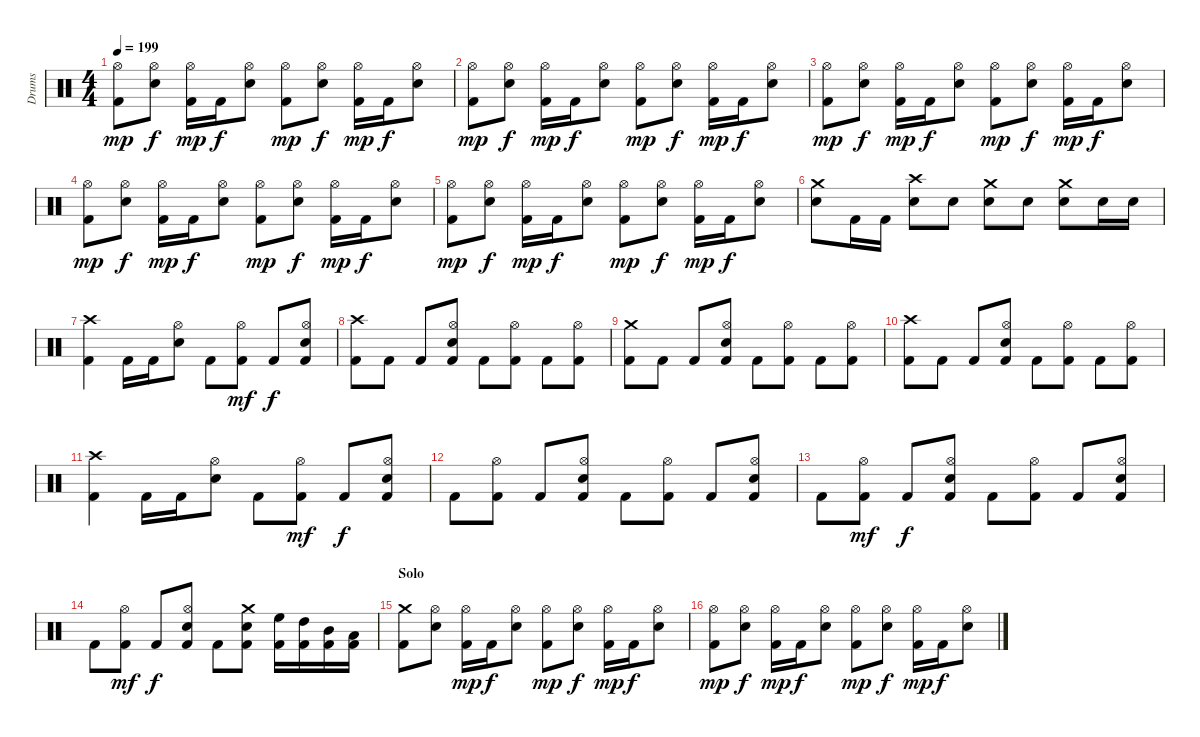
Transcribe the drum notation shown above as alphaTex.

\track ("Drums" "Drums") {instrument percussion}
\staff {score}
\articulation defaults
\ts (4 4)
\tempo 199
\clef neutral
\ks c
("Kick (hit) 2" "Hi-Hat (open)").8{dy mp} ("Snare (hit) 2" "Hi-Hat (open)").8{dy f} ("Kick (hit) 2" "Hi-Hat (open)").16{dy mp} "Kick (hit) 2".16{dy f} ("Snare (hit) 2" "Hi-Hat (open)").8 ("Kick (hit) 2" "Hi-Hat (open)").8{dy mp} ("Snare (hit) 2" "Hi-Hat (open)").8{dy f} ("Kick (hit) 2" "Hi-Hat (open)").16{dy mp} "Kick (hit) 2".16{dy f} ("Snare (hit) 2" "Hi-Hat (open)").8 |
("Kick (hit) 2" "Hi-Hat (open)").8{dy mp} ("Snare (hit) 2" "Hi-Hat (open)").8{dy f} ("Kick (hit) 2" "Hi-Hat (open)").16{dy mp} "Kick (hit) 2".16{dy f} ("Snare (hit) 2" "Hi-Hat (open)").8 ("Kick (hit) 2" "Hi-Hat (open)").8{dy mp} ("Snare (hit) 2" "Hi-Hat (open)").8{dy f} ("Kick (hit) 2" "Hi-Hat (open)").16{dy mp} "Kick (hit) 2".16{dy f} ("Snare (hit) 2" "Hi-Hat (open)").8 |
("Kick (hit) 2" "Hi-Hat (open)").8{dy mp} ("Snare (hit) 2" "Hi-Hat (open)").8{dy f} ("Kick (hit) 2" "Hi-Hat (open)").16{dy mp} "Kick (hit) 2".16{dy f} ("Snare (hit) 2" "Hi-Hat (open)").8 ("Kick (hit) 2" "Hi-Hat (open)").8{dy mp} ("Snare (hit) 2" "Hi-Hat (open)").8{dy f} ("Kick (hit) 2" "Hi-Hat (open)").16{dy mp} "Kick (hit) 2".16{dy f} ("Snare (hit) 2" "Hi-Hat (open)").8 |
("Kick (hit) 2" "Hi-Hat (open)").8{dy mp} ("Snare (hit) 2" "Hi-Hat (open)").8{dy f} ("Kick (hit) 2" "Hi-Hat (open)").16{dy mp} "Kick (hit) 2".16{dy f} ("Snare (hit) 2" "Hi-Hat (open)").8 ("Kick (hit) 2" "Hi-Hat (open)").8{dy mp} ("Snare (hit) 2" "Hi-Hat (open)").8{dy f} ("Kick (hit) 2" "Hi-Hat (open)").16{dy mp} "Kick (hit) 2".16{dy f} ("Snare (hit) 2" "Hi-Hat (open)").8 |
("Kick (hit) 2" "Hi-Hat (open)").8{dy mp} ("Snare (hit) 2" "Hi-Hat (open)").8{dy f} ("Kick (hit) 2" "Hi-Hat (open)").16{dy mp} "Kick (hit) 2".16{dy f} ("Snare (hit) 2" "Hi-Hat (open)").8 ("Kick (hit) 2" "Hi-Hat (open)").8{dy mp} ("Snare (hit) 2" "Hi-Hat (open)").8{dy f} ("Kick (hit) 2" "Hi-Hat (open)").16{dy mp} "Kick (hit) 2".16{dy f} ("Snare (hit) 2" "Hi-Hat (open)").8 |
("Snare (hit) 2" "Crash medium (hit)").8 "Kick (hit) 2".16 "Kick (hit) 2".16 ("Snare (hit) 2" "Crash high (hit)").8 "Snare (hit) 2".8 ("Snare (hit) 2" "Crash medium (hit)").8 "Snare (hit) 2".8 ("Snare (hit) 2" "Crash medium (hit)").8 "Snare (hit) 2".16 "Snare (hit) 2".16 |
\section ("" "")
("Kick (hit) 2" "Crash high (hit)").4 "Kick (hit) 2".16 "Kick (hit) 2".16 ("Snare (hit) 2" "Hi-Hat (open)").8 "Kick (hit) 2".8 ("Kick (hit) 2" "Hi-Hat (open)").8{dy mf} "Kick (hit) 2".8{dy f} ("Kick (hit) 2" "Snare (hit) 2" "Hi-Hat (open)").8 |
("Kick (hit) 2" "Crash high (hit)").8 "Kick (hit) 2".8 "Kick (hit) 2".8 ("Kick (hit) 2" "Snare (hit) 2" "Hi-Hat (open)").8 "Kick (hit) 2".8 ("Kick (hit) 2" "Hi-Hat (open)").8 "Kick (hit) 2".8 ("Kick (hit) 2" "Hi-Hat (open)").8 |
("Kick (hit) 2" "Crash medium (hit)").8 "Kick (hit) 2".8 "Kick (hit) 2".8 ("Kick (hit) 2" "Snare (hit) 2" "Hi-Hat (open)").8 "Kick (hit) 2".8 ("Kick (hit) 2" "Hi-Hat (open)").8 "Kick (hit) 2".8 ("Kick (hit) 2" "Hi-Hat (open)").8 |
("Kick (hit) 2" "Crash high (hit)").8 "Kick (hit) 2".8 "Kick (hit) 2".8 ("Kick (hit) 2" "Snare (hit) 2" "Hi-Hat (open)").8 "Kick (hit) 2".8 ("Kick (hit) 2" "Hi-Hat (open)").8 "Kick (hit) 2".8 ("Kick (hit) 2" "Hi-Hat (open)").8 |
("Kick (hit) 2" "Crash high (hit)").4 "Kick (hit) 2".16 "Kick (hit) 2".16 ("Snare (hit) 2" "Hi-Hat (open)").8 "Kick (hit) 2".8 ("Kick (hit) 2" "Hi-Hat (open)").8{dy mf} "Kick (hit) 2".8{dy f} ("Kick (hit) 2" "Snare (hit) 2" "Hi-Hat (open)").8 |
"Kick (hit) 2".8 ("Kick (hit) 2" "Hi-Hat (open)").8 "Kick (hit) 2".8 ("Kick (hit) 2" "Snare (hit) 2" "Hi-Hat (open)").8 "Kick (hit) 2".8 ("Kick (hit) 2" "Hi-Hat (open)").8 "Kick (hit) 2".8 ("Kick (hit) 2" "Snare (hit) 2" "Hi-Hat (open)").8 |
"Kick (hit) 2".8 ("Kick (hit) 2" "Hi-Hat (open)").8{dy mf} "Kick (hit) 2".8{dy f} ("Kick (hit) 2" "Snare (hit) 2" "Hi-Hat (open)").8 "Kick (hit) 2".8 ("Kick (hit) 2" "Hi-Hat (open)").8 "Kick (hit) 2".8 ("Kick (hit) 2" "Snare (hit) 2" "Hi-Hat (open)").8 |
"Kick (hit) 2".8 ("Kick (hit) 2" "Hi-Hat (open)").8{dy mf} "Kick (hit) 2".8{dy f} ("Kick (hit) 2" "Snare (hit) 2" "Hi-Hat (open)").8 "Kick (hit) 2".8 ("Kick (hit) 2" "Snare (hit) 2" "Crash medium (hit)").8 ("Kick (hit) 2" "High Floor Tom (hit)").16 ("Kick (hit) 2" "High Tom (hit)").16 ("Kick (hit) 2" "Mid Tom (hit)").16 ("Kick (hit) 2" "Low Tom (hit)").16 |
\section ("" "Solo")
("Kick (hit) 2" "Crash medium (hit)").8 ("Snare (hit) 2" "Hi-Hat (open)").8 ("Kick (hit) 2" "Hi-Hat (open)").16{dy mp} "Kick (hit) 2".16{dy f} ("Snare (hit) 2" "Hi-Hat (open)").8 ("Kick (hit) 2" "Hi-Hat (open)").8{dy mp} ("Snare (hit) 2" "Hi-Hat (open)").8{dy f} ("Kick (hit) 2" "Hi-Hat (open)").16{dy mp} "Kick (hit) 2".16{dy f} ("Snare (hit) 2" "Hi-Hat (open)").8 |
("Kick (hit) 2" "Hi-Hat (open)").8{dy mp} ("Snare (hit) 2" "Hi-Hat (open)").8{dy f} ("Kick (hit) 2" "Hi-Hat (open)").16{dy mp} "Kick (hit) 2".16{dy f} ("Snare (hit) 2" "Hi-Hat (open)").8 ("Kick (hit) 2" "Hi-Hat (open)").8{dy mp} ("Snare (hit) 2" "Hi-Hat (open)").8{dy f} ("Kick (hit) 2" "Hi-Hat (open)").16{dy mp} "Kick (hit) 2".16{dy f} ("Snare (hit) 2" "Hi-Hat (open)").8
